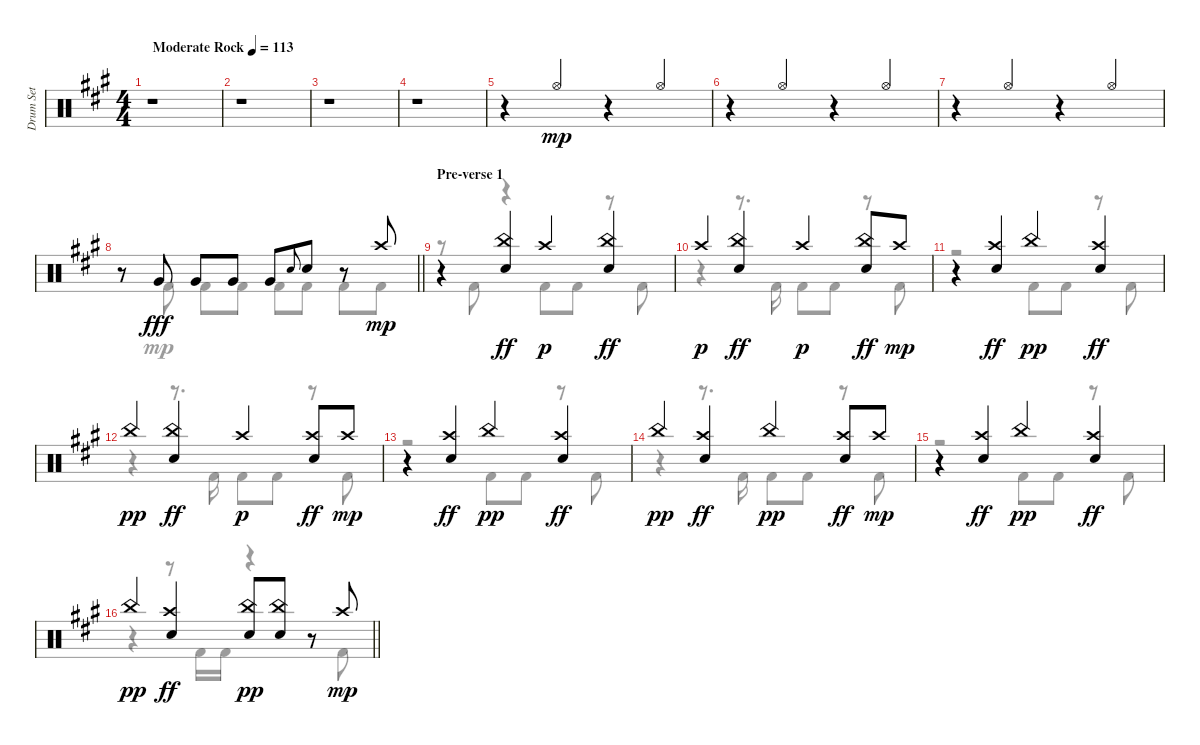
\track ("Drum Set" "Drum Set") {instrument percussion}
\staff {score}
\articulation defaults
\voice
\ts (4 4)
\tempo (113 "Moderate Rock")
\clef neutral
\ks f#minor
r.1{dy mp} |
r.1 |
r.1 |
r.1 |
r.4 "Hi-Hat (open)".4{beam Up} r.4 "Hi-Hat (open)".4{beam Up} |
r.4 "Hi-Hat (open)".4{beam Up} r.4 "Hi-Hat (open)".4{beam Up} |
r.4 "Hi-Hat (open)".4{beam Up} r.4 "Hi-Hat (open)".4{beam Up} |
\barLineRight lightlight
r.8 "Very Low Tom (hit)".8{dy fff} "Very Low Tom (hit)".8 "Very Low Tom (hit)".8 "Very Low Tom (hit)".8 "Electric Snare (hit)".8{gr onbeat} "Electric Snare (hit)".8 r.8 "Crash high (hit)".8{dy mp} |
\section ("" "Pre-verse 1")
r.4 ("China (hit)" "Electric Snare (hit)").4{dy ff} "Crash high (hit)".4{dy p} ("China (hit)" "Electric Snare (hit)").4{dy ff} |
"Crash high (hit)".4{dy p} ("China (hit)" "Electric Snare (hit)").4{dy ff} "Crash high (hit)".4{dy p} ("China (hit)" "Electric Snare (hit)").8{dy ff} "Crash high (hit)".8{dy mp} |
r.4 ("Crash high (hit)" "Electric Snare (hit)").4{dy ff} "China (hit)".4{dy pp} ("Crash high (hit)" "Electric Snare (hit)").4{dy ff} |
"China (hit)".4{dy pp} ("China (hit)" "Electric Snare (hit)").4{dy ff} "Crash high (hit)".4{dy p} ("Crash high (hit)" "Electric Snare (hit)").8{dy ff} "Crash high (hit)".8{dy mp} |
r.4 ("Crash high (hit)" "Electric Snare (hit)").4{dy ff} "China (hit)".4{dy pp} ("Crash high (hit)" "Electric Snare (hit)").4{dy ff} |
"China (hit)".4{dy pp} ("Crash high (hit)" "Electric Snare (hit)").4{dy ff} "China (hit)".4{dy pp} ("Crash high (hit)" "Electric Snare (hit)").8{dy ff} "Crash high (hit)".8{dy mp} |
r.4 ("Crash high (hit)" "Electric Snare (hit)").4{dy ff} "China (hit)".4{dy pp} ("Crash high (hit)" "Electric Snare (hit)").4{dy ff} |
\barLineRight lightlight "China (hit)".4{dy pp}
("Crash high (hit)" "Electric Snare (hit)").4{dy ff} ("Electric Snare (hit)" "China (hit)").8{dy pp} ("Electric Snare (hit)" "China (hit)").8 r.8 "Crash high (hit)".8{dy mp}
\voice
\clef neutral
\ottava regular
\simile none
\ks f#minor
|
|
|
|
|
|
|
\barLineRight lightlight
r.8 "Kick (hit) 2".8 "Kick (hit) 2".8 "Kick (hit) 2".8 "Kick (hit) 2".8 "Kick (hit) 2".8 "Kick (hit) 2".8 "Kick (hit) 2".8 |
r.8 "Kick (hit) 2".8 r.4 "Kick (hit) 2".8 "Kick (hit) 2".8 r.8 "Kick (hit) 2".8 |
r.4 r.8{d} "Kick (hit) 2".16 "Kick (hit) 2".8 "Kick (hit) 2".8 r.8 "Kick (hit) 2".8 |
r.2 "Kick (hit) 2".8 "Kick (hit) 2".8 r.8 "Kick (hit) 2".8 |
r.4 r.8{d} "Kick (hit) 2".16 "Kick (hit) 2".8 "Kick (hit) 2".8 r.8 "Kick (hit) 2".8 |
r.2 "Kick (hit) 2".8 "Kick (hit) 2".8 r.8 "Kick (hit) 2".8 |
r.4 r.8{d} "Kick (hit) 2".16 "Kick (hit) 2".8 "Kick (hit) 2".8 r.8 "Kick (hit) 2".8 |
r.2 "Kick (hit) 2".8 "Kick (hit) 2".8 r.8 "Kick (hit) 2".8 |
\barLineRight lightlight
r.4 r.8 "Kick (hit) 2".16 "Kick (hit) 2".16 r.4 r.8 "Kick (hit) 2".8
